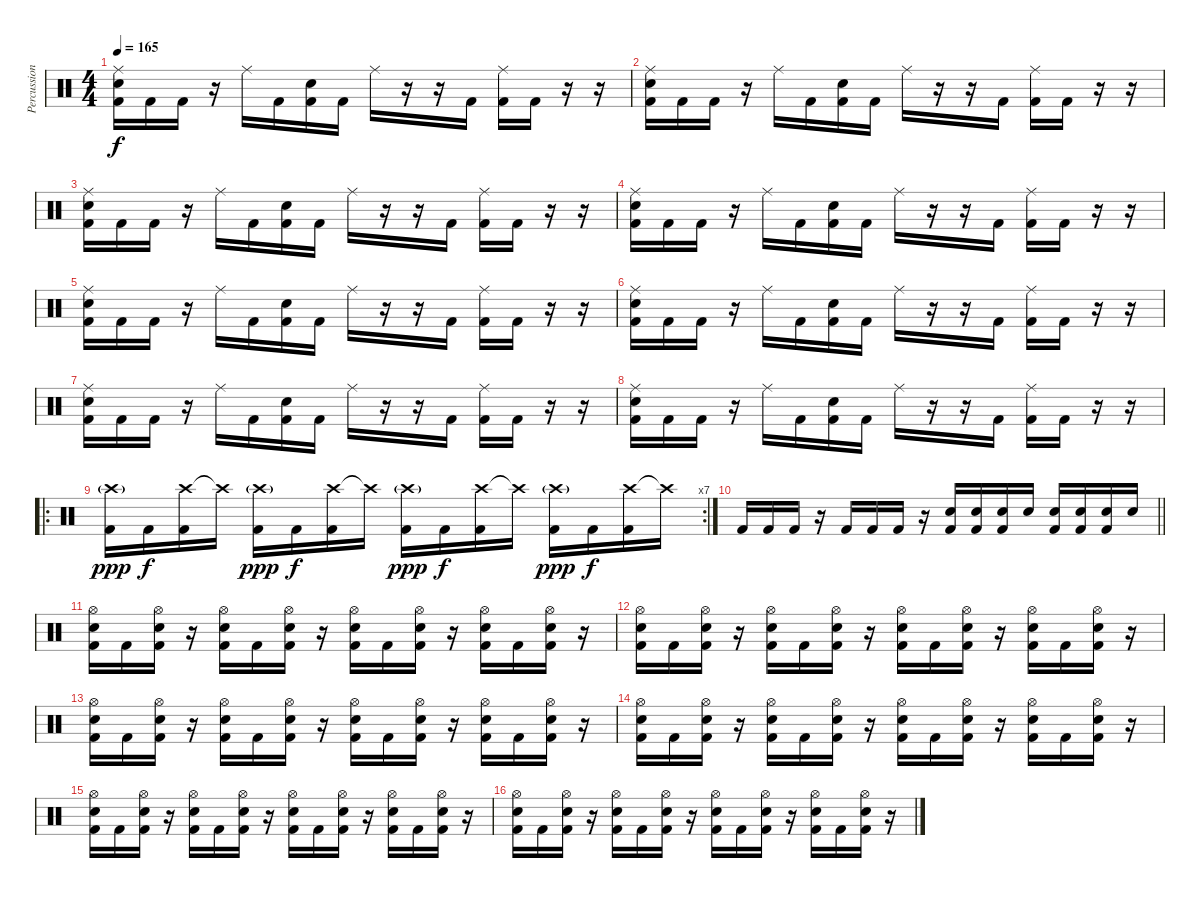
\track ("Percussion" "Percussion") {instrument percussion}
\staff {score}
\articulation defaults
\ts (4 4)
\tempo 165
\clef neutral
\ks c
("Ride (middle)" "Electric Snare (hit)" "Kick (hit) 2").16{dy f} "Kick (hit) 2".16 "Kick (hit) 2".16 r.16 "Ride (middle)".16 "Kick (hit) 2".16 ("Electric Snare (hit)" "Kick (hit) 2").16 "Kick (hit) 2".16 "Ride (middle)".16 r.16 r.16 "Kick (hit) 2".16 ("Ride (middle)" "Kick (hit) 2").16 "Kick (hit) 2".16 r.16 r.16 |
("Ride (middle)" "Electric Snare (hit)" "Kick (hit) 2").16 "Kick (hit) 2".16 "Kick (hit) 2".16 r.16 "Ride (middle)".16 "Kick (hit) 2".16 ("Electric Snare (hit)" "Kick (hit) 2").16 "Kick (hit) 2".16 "Ride (middle)".16 r.16 r.16 "Kick (hit) 2".16 ("Ride (middle)" "Kick (hit) 2").16 "Kick (hit) 2".16 r.16 r.16 |
("Ride (middle)" "Electric Snare (hit)" "Kick (hit) 2").16 "Kick (hit) 2".16 "Kick (hit) 2".16 r.16 "Ride (middle)".16 "Kick (hit) 2".16 ("Electric Snare (hit)" "Kick (hit) 2").16 "Kick (hit) 2".16 "Ride (middle)".16 r.16 r.16 "Kick (hit) 2".16 ("Ride (middle)" "Kick (hit) 2").16 "Kick (hit) 2".16 r.16 r.16 |
("Ride (middle)" "Electric Snare (hit)" "Kick (hit) 2").16 "Kick (hit) 2".16 "Kick (hit) 2".16 r.16 "Ride (middle)".16 "Kick (hit) 2".16 ("Electric Snare (hit)" "Kick (hit) 2").16 "Kick (hit) 2".16 "Ride (middle)".16 r.16 r.16 "Kick (hit) 2".16 ("Ride (middle)" "Kick (hit) 2").16 "Kick (hit) 2".16 r.16 r.16 |
("Ride (middle)" "Electric Snare (hit)" "Kick (hit) 2").16 "Kick (hit) 2".16 "Kick (hit) 2".16 r.16 "Ride (middle)".16 "Kick (hit) 2".16 ("Electric Snare (hit)" "Kick (hit) 2").16 "Kick (hit) 2".16 "Ride (middle)".16 r.16 r.16 "Kick (hit) 2".16 ("Ride (middle)" "Kick (hit) 2").16 "Kick (hit) 2".16 r.16 r.16 |
("Ride (middle)" "Electric Snare (hit)" "Kick (hit) 2").16 "Kick (hit) 2".16 "Kick (hit) 2".16 r.16 "Ride (middle)".16 "Kick (hit) 2".16 ("Electric Snare (hit)" "Kick (hit) 2").16 "Kick (hit) 2".16 "Ride (middle)".16 r.16 r.16 "Kick (hit) 2".16 ("Ride (middle)" "Kick (hit) 2").16 "Kick (hit) 2".16 r.16 r.16 |
("Ride (middle)" "Electric Snare (hit)" "Kick (hit) 2").16 "Kick (hit) 2".16 "Kick (hit) 2".16 r.16 "Ride (middle)".16 "Kick (hit) 2".16 ("Electric Snare (hit)" "Kick (hit) 2").16 "Kick (hit) 2".16 "Ride (middle)".16 r.16 r.16 "Kick (hit) 2".16 ("Ride (middle)" "Kick (hit) 2").16 "Kick (hit) 2".16 r.16 r.16 |
("Ride (middle)" "Electric Snare (hit)" "Kick (hit) 2").16 "Kick (hit) 2".16 "Kick (hit) 2".16 r.16 "Ride (middle)".16 "Kick (hit) 2".16 ("Electric Snare (hit)" "Kick (hit) 2").16 "Kick (hit) 2".16 "Ride (middle)".16 r.16 r.16 "Kick (hit) 2".16 ("Ride (middle)" "Kick (hit) 2").16 "Kick (hit) 2".16 r.16 r.16 |
\ro
\rc 7
("Crash high (hit)"{g} "Kick (hit) 2").16{dy ppp} "Kick (hit) 2".16{dy f} ("Crash high (hit)" "Kick (hit) 2").16 "Crash high (hit)"{t}.16 ("Crash high (hit)"{g} "Kick (hit) 2").16{dy ppp} "Kick (hit) 2".16{dy f} ("Crash high (hit)" "Kick (hit) 2").16 "Crash high (hit)"{t}.16 ("Crash high (hit)"{g} "Kick (hit) 2").16{dy ppp} "Kick (hit) 2".16{dy f} ("Crash high (hit)" "Kick (hit) 2").16 "Crash high (hit)"{t}.16 ("Crash high (hit)"{g} "Kick (hit) 2").16{dy ppp} "Kick (hit) 2".16{dy f} ("Crash high (hit)" "Kick (hit) 2").16 "Crash high (hit)"{t}.16 |
\barLineRight lightlight "Kick (hit) 2".16 "Kick (hit) 2".16 "Kick (hit) 2".16
r.16 "Kick (hit) 2".16 "Kick (hit) 2".16 "Kick (hit) 2".16 r.16 ("Electric Snare (hit)" "Kick (hit) 2").16 ("Electric Snare (hit)" "Kick (hit) 2").16 ("Electric Snare (hit)" "Kick (hit) 2").16 "Electric Snare (hit)".16 ("Electric Snare (hit)" "Kick (hit) 2").16 ("Electric Snare (hit)" "Kick (hit) 2").16 ("Electric Snare (hit)" "Kick (hit) 2").16 "Electric Snare (hit)".16 |
("Hi-Hat (open)" "Electric Snare (hit)" "Kick (hit) 2").16 "Kick (hit) 2".16 ("Hi-Hat (open)" "Electric Snare (hit)" "Kick (hit) 2").16 r.16 ("Hi-Hat (open)" "Electric Snare (hit)" "Kick (hit) 2").16 "Kick (hit) 2".16 ("Hi-Hat (open)" "Electric Snare (hit)" "Kick (hit) 2").16 r.16 ("Hi-Hat (open)" "Electric Snare (hit)" "Kick (hit) 2").16 "Kick (hit) 2".16 ("Hi-Hat (open)" "Electric Snare (hit)" "Kick (hit) 2").16 r.16 ("Hi-Hat (open)" "Electric Snare (hit)" "Kick (hit) 2").16 "Kick (hit) 2".16 ("Hi-Hat (open)" "Electric Snare (hit)" "Kick (hit) 2").16 r.16 |
("Hi-Hat (open)" "Electric Snare (hit)" "Kick (hit) 2").16 "Kick (hit) 2".16 ("Hi-Hat (open)" "Electric Snare (hit)" "Kick (hit) 2").16 r.16 ("Hi-Hat (open)" "Electric Snare (hit)" "Kick (hit) 2").16 "Kick (hit) 2".16 ("Hi-Hat (open)" "Electric Snare (hit)" "Kick (hit) 2").16 r.16 ("Hi-Hat (open)" "Electric Snare (hit)" "Kick (hit) 2").16 "Kick (hit) 2".16 ("Hi-Hat (open)" "Electric Snare (hit)" "Kick (hit) 2").16 r.16 ("Hi-Hat (open)" "Electric Snare (hit)" "Kick (hit) 2").16 "Kick (hit) 2".16 ("Hi-Hat (open)" "Electric Snare (hit)" "Kick (hit) 2").16 r.16 |
("Hi-Hat (open)" "Electric Snare (hit)" "Kick (hit) 2").16 "Kick (hit) 2".16 ("Hi-Hat (open)" "Electric Snare (hit)" "Kick (hit) 2").16 r.16 ("Hi-Hat (open)" "Electric Snare (hit)" "Kick (hit) 2").16 "Kick (hit) 2".16 ("Hi-Hat (open)" "Electric Snare (hit)" "Kick (hit) 2").16 r.16 ("Hi-Hat (open)" "Electric Snare (hit)" "Kick (hit) 2").16 "Kick (hit) 2".16 ("Hi-Hat (open)" "Electric Snare (hit)" "Kick (hit) 2").16 r.16 ("Hi-Hat (open)" "Electric Snare (hit)" "Kick (hit) 2").16 "Kick (hit) 2".16 ("Hi-Hat (open)" "Electric Snare (hit)" "Kick (hit) 2").16 r.16 |
("Hi-Hat (open)" "Electric Snare (hit)" "Kick (hit) 2").16 "Kick (hit) 2".16 ("Hi-Hat (open)" "Electric Snare (hit)" "Kick (hit) 2").16 r.16 ("Hi-Hat (open)" "Electric Snare (hit)" "Kick (hit) 2").16 "Kick (hit) 2".16 ("Hi-Hat (open)" "Electric Snare (hit)" "Kick (hit) 2").16 r.16 ("Hi-Hat (open)" "Electric Snare (hit)" "Kick (hit) 2").16 "Kick (hit) 2".16 ("Hi-Hat (open)" "Electric Snare (hit)" "Kick (hit) 2").16 r.16 ("Hi-Hat (open)" "Electric Snare (hit)" "Kick (hit) 2").16 "Kick (hit) 2".16 ("Hi-Hat (open)" "Electric Snare (hit)" "Kick (hit) 2").16 r.16 |
("Hi-Hat (open)" "Electric Snare (hit)" "Kick (hit) 2").16 "Kick (hit) 2".16 ("Hi-Hat (open)" "Electric Snare (hit)" "Kick (hit) 2").16 r.16 ("Hi-Hat (open)" "Electric Snare (hit)" "Kick (hit) 2").16 "Kick (hit) 2".16 ("Hi-Hat (open)" "Electric Snare (hit)" "Kick (hit) 2").16 r.16 ("Hi-Hat (open)" "Electric Snare (hit)" "Kick (hit) 2").16 "Kick (hit) 2".16 ("Hi-Hat (open)" "Electric Snare (hit)" "Kick (hit) 2").16 r.16 ("Hi-Hat (open)" "Electric Snare (hit)" "Kick (hit) 2").16 "Kick (hit) 2".16 ("Hi-Hat (open)" "Electric Snare (hit)" "Kick (hit) 2").16 r.16 |
("Hi-Hat (open)" "Electric Snare (hit)" "Kick (hit) 2").16 "Kick (hit) 2".16 ("Hi-Hat (open)" "Electric Snare (hit)" "Kick (hit) 2").16 r.16 ("Hi-Hat (open)" "Electric Snare (hit)" "Kick (hit) 2").16 "Kick (hit) 2".16 ("Hi-Hat (open)" "Electric Snare (hit)" "Kick (hit) 2").16 r.16 ("Hi-Hat (open)" "Electric Snare (hit)" "Kick (hit) 2").16 "Kick (hit) 2".16 ("Hi-Hat (open)" "Electric Snare (hit)" "Kick (hit) 2").16 r.16 ("Hi-Hat (open)" "Electric Snare (hit)" "Kick (hit) 2").16 "Kick (hit) 2".16 ("Hi-Hat (open)" "Electric Snare (hit)" "Kick (hit) 2").16 r.16
